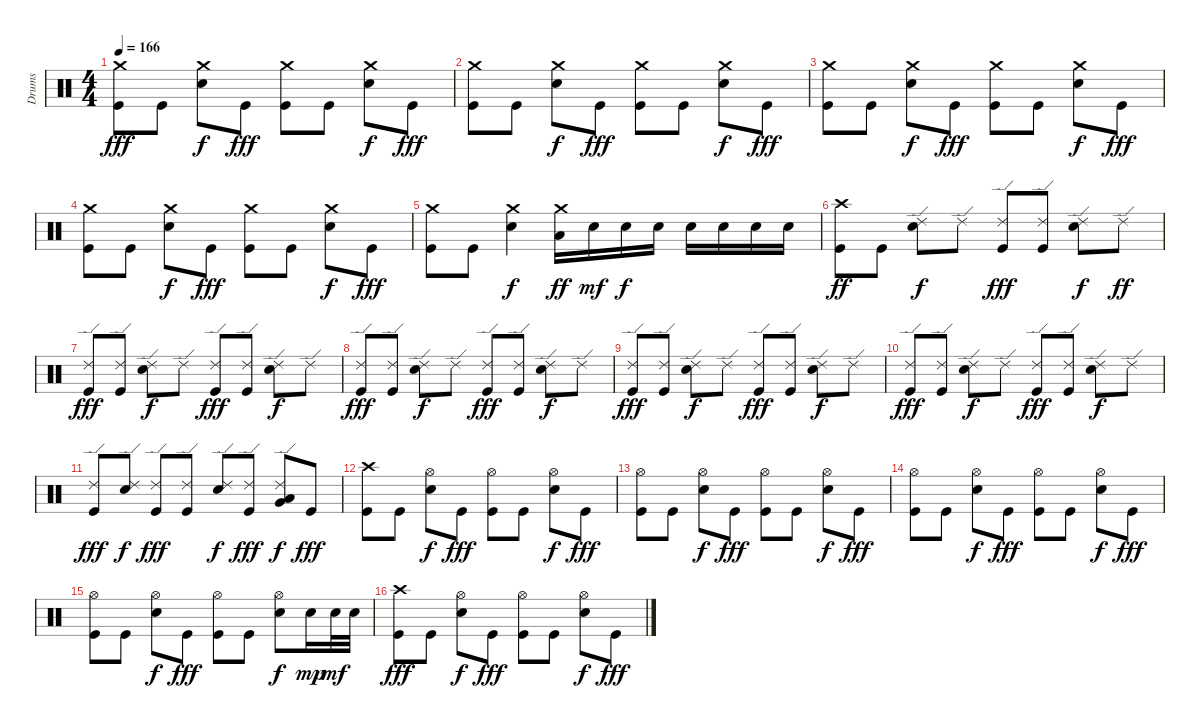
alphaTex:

\track ("Drums" "Drums") {instrument percussion}
\staff {score}
\articulation defaults
\ts (4 4)
\tempo 166
\clef neutral
\ks c
("Crash medium (hit)" "Kick (hit)").8{dy fff} "Kick (hit)".8 ("Crash medium (hit)" "Snare (hit) 2").8{dy f} "Kick (hit)".8{dy fff} ("Crash medium (hit)" "Kick (hit)").8 "Kick (hit)".8 ("Crash medium (hit)" "Snare (hit) 2").8{dy f} "Kick (hit)".8{dy fff} |
("Crash medium (hit)" "Kick (hit)").8 "Kick (hit)".8 ("Crash medium (hit)" "Snare (hit) 2").8{dy f} "Kick (hit)".8{dy fff} ("Crash medium (hit)" "Kick (hit)").8 "Kick (hit)".8 ("Crash medium (hit)" "Snare (hit) 2").8{dy f} "Kick (hit)".8{dy fff} |
("Crash medium (hit)" "Kick (hit)").8 "Kick (hit)".8 ("Crash medium (hit)" "Snare (hit) 2").8{dy f} "Kick (hit)".8{dy fff} ("Crash medium (hit)" "Kick (hit)").8 "Kick (hit)".8 ("Crash medium (hit)" "Snare (hit) 2").8{dy f} "Kick (hit)".8{dy fff} |
("Crash medium (hit)" "Kick (hit)").8 "Kick (hit)".8 ("Crash medium (hit)" "Snare (hit) 2").8{dy f} "Kick (hit)".8{dy fff} ("Crash medium (hit)" "Kick (hit)").8 "Kick (hit)".8 ("Crash medium (hit)" "Snare (hit) 2").8{dy f} "Kick (hit)".8{dy fff} |
("Crash medium (hit)" "Kick (hit)").8 "Kick (hit)".8 ("Crash medium (hit)" "Snare (hit) 2").4{dy f} ("Crash medium (hit)" "Low Tom (hit)").16{dy ff} "Snare (hit) 2".16{dy mf} "Snare (hit) 2".16{dy f} "Snare (hit) 2".16 "Snare (hit) 2".16 "Snare (hit) 2".16 "Snare (hit) 2".16 "Snare (hit) 2".16 |
("Crash high (hit)" "Kick (hit)").8{dy ff} "Kick (hit)".8 ("Ride (edge) 2" "Snare (hit) 2").8{dy f} "Ride (edge) 2".8 ("Ride (edge) 2" "Kick (hit)").8{dy fff} ("Ride (edge) 2" "Kick (hit)").8 ("Ride (edge) 2" "Snare (hit) 2").8{dy f} "Ride (edge) 2".8{dy ff} |
("Ride (edge) 2" "Kick (hit)").8{dy fff} ("Ride (edge) 2" "Kick (hit)").8 ("Ride (edge) 2" "Snare (hit) 2").8{dy f} "Ride (edge) 2".8 ("Ride (edge) 2" "Kick (hit)").8{dy fff} ("Ride (edge) 2" "Kick (hit)").8 ("Ride (edge) 2" "Snare (hit) 2").8{dy f} "Ride (edge) 2".8 |
("Ride (edge) 2" "Kick (hit)").8{dy fff} ("Ride (edge) 2" "Kick (hit)").8 ("Ride (edge) 2" "Snare (hit) 2").8{dy f} "Ride (edge) 2".8 ("Ride (edge) 2" "Kick (hit)").8{dy fff} ("Ride (edge) 2" "Kick (hit)").8 ("Ride (edge) 2" "Snare (hit) 2").8{dy f} "Ride (edge) 2".8 |
("Ride (edge) 2" "Kick (hit)").8{dy fff} ("Ride (edge) 2" "Kick (hit)").8 ("Ride (edge) 2" "Snare (hit) 2").8{dy f} "Ride (edge) 2".8 ("Ride (edge) 2" "Kick (hit)").8{dy fff} ("Ride (edge) 2" "Kick (hit)").8 ("Ride (edge) 2" "Snare (hit) 2").8{dy f} "Ride (edge) 2".8 |
("Ride (edge) 2" "Kick (hit)").8{dy fff} ("Ride (edge) 2" "Kick (hit)").8 ("Ride (edge) 2" "Snare (hit) 2").8{dy f} "Ride (edge) 2".8 ("Ride (edge) 2" "Kick (hit)").8{dy fff} ("Ride (edge) 2" "Kick (hit)").8 ("Ride (edge) 2" "Snare (hit) 2").8{dy f} "Ride (edge) 2".8 |
("Ride (edge) 2" "Kick (hit)").8{dy fff} ("Ride (edge) 2" "Snare (hit) 2").8{dy f} ("Ride (edge) 2" "Kick (hit)").8{dy fff} ("Ride (edge) 2" "Kick (hit)").8 ("Ride (edge) 2" "Snare (hit) 2").8{dy f} ("Ride (edge) 2" "Kick (hit)").8{dy fff} ("Ride (edge) 2" "Very Low Tom (hit)" "Low Floor Tom (hit)").8{dy f} "Kick (hit)".8{dy fff} |
("Crash high (hit)" "Kick (hit)").8 "Kick (hit)".8 ("Hi-Hat (open)" "Snare (hit) 2").8{dy f} "Kick (hit)".8{dy fff} ("Hi-Hat (open)" "Kick (hit)").8 "Kick (hit)".8 ("Hi-Hat (open)" "Snare (hit) 2").8{dy f} "Kick (hit)".8{dy fff} |
("Hi-Hat (open)" "Kick (hit)").8 "Kick (hit)".8 ("Hi-Hat (open)" "Snare (hit) 2").8{dy f} "Kick (hit)".8{dy fff} ("Hi-Hat (open)" "Kick (hit)").8 "Kick (hit)".8 ("Hi-Hat (open)" "Snare (hit) 2").8{dy f} "Kick (hit)".8{dy fff} |
("Hi-Hat (open)" "Kick (hit)").8 "Kick (hit)".8 ("Hi-Hat (open)" "Snare (hit) 2").8{dy f} "Kick (hit)".8{dy fff} ("Hi-Hat (open)" "Kick (hit)").8 "Kick (hit)".8 ("Hi-Hat (open)" "Snare (hit) 2").8{dy f} "Kick (hit)".8{dy fff} |
("Hi-Hat (open)" "Kick (hit)").8 "Kick (hit)".8 ("Hi-Hat (open)" "Snare (hit) 2").8{dy f} "Kick (hit)".8{dy fff} ("Hi-Hat (open)" "Kick (hit)").8 "Kick (hit)".8 ("Hi-Hat (open)" "Snare (hit) 2").8{dy f} "Snare (hit) 2".16{dy mp} "Snare (hit) 2".32{dy mf} "Snare (hit) 2".32 |
("Crash high (hit)" "Kick (hit)").8{dy fff} "Kick (hit)".8 ("Hi-Hat (open)" "Snare (hit) 2").8{dy f} "Kick (hit)".8{dy fff} ("Hi-Hat (open)" "Kick (hit)").8 "Kick (hit)".8 ("Hi-Hat (open)" "Snare (hit) 2").8{dy f} "Kick (hit)".8{dy fff}
